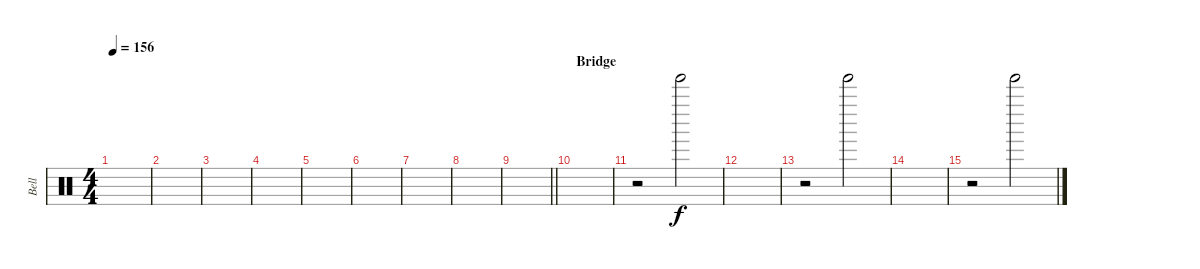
\track ("Bell" "Bell") {instrument percussion}
\staff {score}
\articulation defaults
\ts (4 4)
\tempo 156
\clef neutral
\ks c
|
|
|
|
|
|
|
|
\barLineRight lightlight
|
\section ("" "Bridge")
|
r.2 "Tinkle Bell (hit)".2 |
|
r.2 "Tinkle Bell (hit)".2 |
|
r.2 "Tinkle Bell (hit)".2
